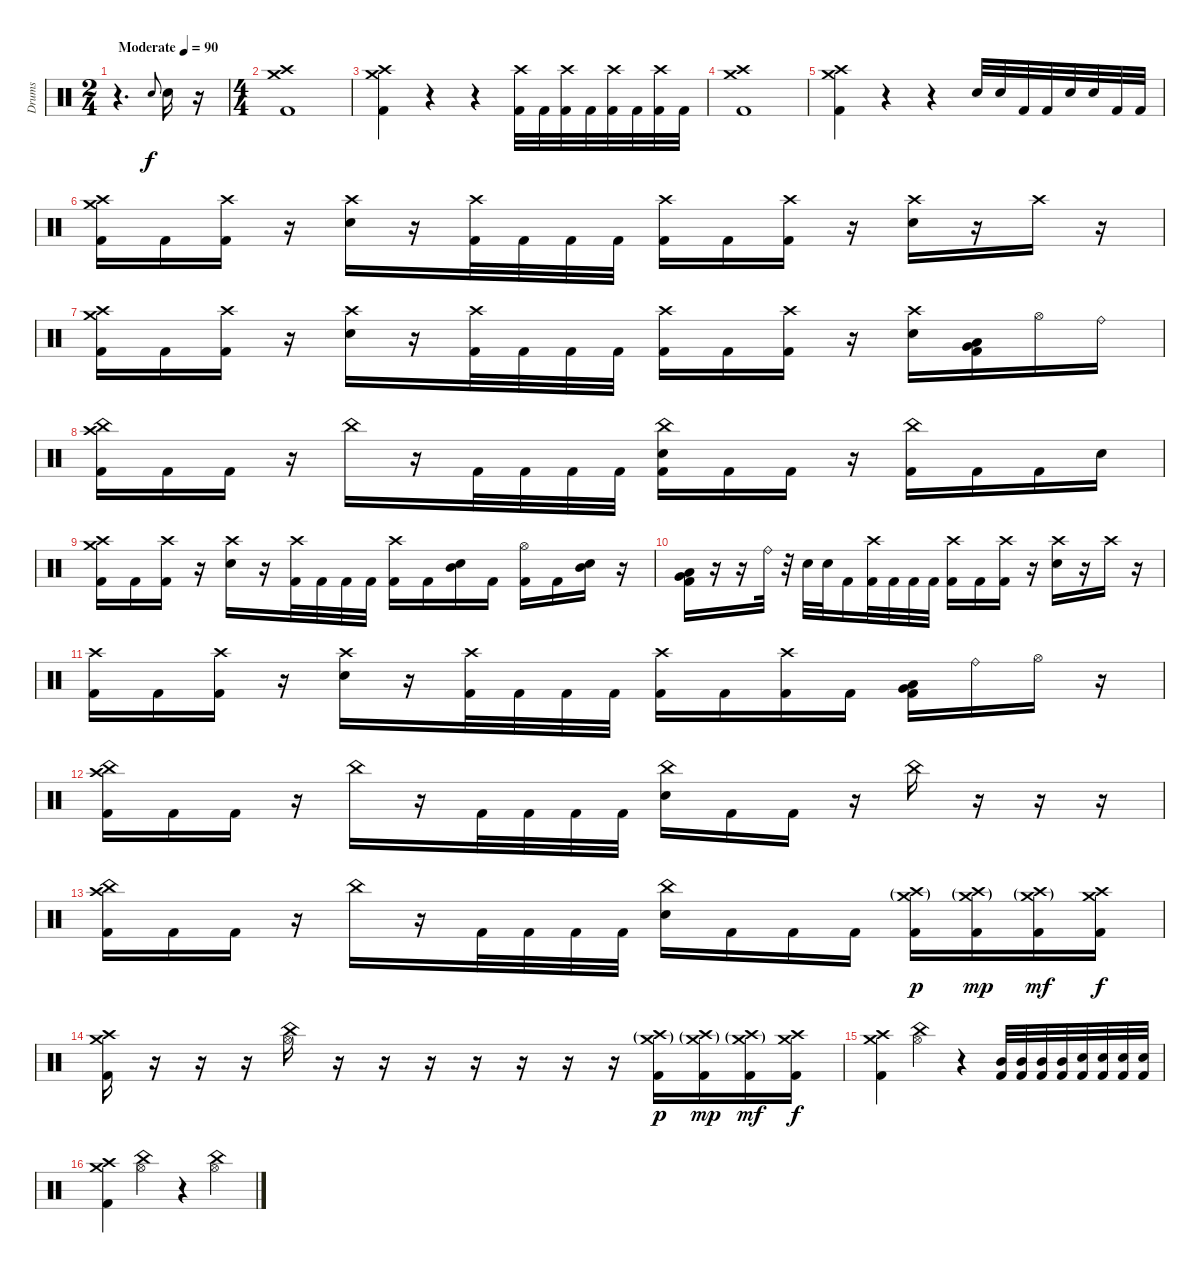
\track ("Drums" "Drums") {instrument percussion}
\staff {score}
\articulation defaults
\ts (2 4)
\tempo (90 "Moderate")
\clef neutral
\ks c
r.4{d dy f} "Electric Snare (hit)".8{gr onbeat} "Electric Snare (hit)".16 r.16 |
\ts (4 4)
("Crash high (hit)" "Crash medium (hit)" "Kick (hit) 2").1 |
("Crash high (hit)" "Crash medium (hit)" "Kick (hit) 2").4 r.4 r.4 ("Crash high (hit)" "Kick (hit) 2").32 "Kick (hit) 2".32 ("Crash high (hit)" "Kick (hit) 2").32 "Kick (hit) 2".32 ("Crash high (hit)" "Kick (hit) 2").32 "Kick (hit) 2".32 ("Crash high (hit)" "Kick (hit) 2").32 "Kick (hit) 2".32 |
("Crash high (hit)" "Crash medium (hit)" "Kick (hit) 2").1 |
("Crash high (hit)" "Crash medium (hit)" "Kick (hit) 2").4 r.4 r.4 "Electric Snare (hit)".32 "Electric Snare (hit)".32 "Kick (hit) 2".32 "Kick (hit) 2".32 "Electric Snare (hit)".32 "Electric Snare (hit)".32 "Kick (hit) 2".32 "Kick (hit) 2".32 |
("Crash high (hit)" "Crash medium (hit)" "Kick (hit) 2").16 "Kick (hit) 2".16 ("Crash high (hit)" "Kick (hit) 2").16 r.16 ("Crash high (hit)" "Electric Snare (hit)").16 r.16 ("Crash high (hit)" "Kick (hit) 2").32 "Kick (hit) 2".32 "Kick (hit) 2".32 "Kick (hit) 2".32 ("Crash high (hit)" "Kick (hit) 2").16 "Kick (hit) 2".16 ("Crash high (hit)" "Kick (hit) 2").16 r.16 ("Crash high (hit)" "Electric Snare (hit)").16 r.16 "Crash high (hit)".16 r.16 |
("Crash high (hit)" "Crash medium (hit)" "Kick (hit) 2").16 "Kick (hit) 2".16 ("Crash high (hit)" "Kick (hit) 2").16 r.16 ("Crash high (hit)" "Electric Snare (hit)").16 r.16 ("Crash high (hit)" "Kick (hit) 2").32 "Kick (hit) 2".32 "Kick (hit) 2".32 "Kick (hit) 2".32 ("Crash high (hit)" "Kick (hit) 2").16 "Kick (hit) 2".16 ("Crash high (hit)" "Kick (hit) 2").16 r.16 ("Crash high (hit)" "Electric Snare (hit)").16 ("Very Low Tom (hit)" "Low Floor Tom (hit)" "Kick (hit) 2").16 "Hi-Hat (open)".16 "Ride (bell)".16 |
("Crash high (hit)" "China (hit)" "Kick (hit) 2").16 "Kick (hit) 2".16 "Kick (hit) 2".16 r.16 "China (hit)".16 r.16 "Kick (hit) 2".32 "Kick (hit) 2".32 "Kick (hit) 2".32 "Kick (hit) 2".32 ("China (hit)" "Electric Snare (hit)" "Kick (hit) 2").16 "Kick (hit) 2".16 "Kick (hit) 2".16 r.16 ("China (hit)" "Kick (hit) 2").16 "Kick (hit) 2".16 "Kick (hit) 2".16 "Electric Snare (hit)".16 |
("Crash high (hit)" "Crash medium (hit)" "Kick (hit) 2").16 "Kick (hit) 2".16 ("Crash high (hit)" "Kick (hit) 2").16 r.16 ("Crash high (hit)" "Electric Snare (hit)").16 r.16 ("Crash high (hit)" "Kick (hit) 2").32 "Kick (hit) 2".32 "Kick (hit) 2".32 "Kick (hit) 2".32 ("Crash high (hit)" "Kick (hit) 2").16 "Kick (hit) 2".16 ("Mid Tom (hit)" "Electric Snare (hit)").16 "Kick (hit) 2".16 ("Hi-Hat (open)" "Kick (hit) 2").16 "Kick (hit) 2".16 ("Mid Tom (hit)" "Electric Snare (hit)").16{bd 480} r.16 |
("Low Tom (hit)" "Very Low Tom (hit)" "Kick (hit) 2").16 r.16 r.16 "Ride (bell)".32 r.32 "Electric Snare (hit)".32 "Electric Snare (hit)".32 "Kick (hit) 2".16 ("Crash high (hit)" "Kick (hit) 2").32 "Kick (hit) 2".32 "Kick (hit) 2".32 "Kick (hit) 2".32 ("Crash high (hit)" "Kick (hit) 2").16 "Kick (hit) 2".16 ("Crash high (hit)" "Kick (hit) 2").16 r.16 ("Crash high (hit)" "Electric Snare (hit)").16 r.16 "Crash high (hit)".16 r.16 |
("Crash high (hit)" "Kick (hit) 2").16 "Kick (hit) 2".16 ("Crash high (hit)" "Kick (hit) 2").16 r.16 ("Crash high (hit)" "Electric Snare (hit)").16 r.16 ("Crash high (hit)" "Kick (hit) 2").32 "Kick (hit) 2".32 "Kick (hit) 2".32 "Kick (hit) 2".32 ("Crash high (hit)" "Kick (hit) 2").16 "Kick (hit) 2".16 ("Crash high (hit)" "Kick (hit) 2").16 "Kick (hit) 2".16 ("Very Low Tom (hit)" "Low Floor Tom (hit)" "Kick (hit) 2").16 "Ride (bell)".16 "Hi-Hat (open)".16 r.16 |
("Crash high (hit)" "China (hit)" "Kick (hit) 2").16 "Kick (hit) 2".16 "Kick (hit) 2".16 r.16 "China (hit)".16 r.16 "Kick (hit) 2".32 "Kick (hit) 2".32 "Kick (hit) 2".32 "Kick (hit) 2".32 ("China (hit)" "Electric Snare (hit)").16 "Kick (hit) 2".16 "Kick (hit) 2".16 r.16 "China (hit)".16 r.16 r.16 r.16 |
("Crash high (hit)" "China (hit)" "Kick (hit) 2").16 "Kick (hit) 2".16 "Kick (hit) 2".16 r.16 "China (hit)".16 r.16 "Kick (hit) 2".32 "Kick (hit) 2".32 "Kick (hit) 2".32 "Kick (hit) 2".32 ("China (hit)" "Electric Snare (hit)").16 "Kick (hit) 2".16 "Kick (hit) 2".16 "Kick (hit) 2".16 ("Crash medium (hit)"{g} "Crash high (hit)"{g} "Kick (hit) 2").16{dy p} ("Crash medium (hit)"{g} "Crash high (hit)"{g} "Kick (hit) 2").16{dy mp} ("Crash medium (hit)"{g} "Crash high (hit)"{g} "Kick (hit) 2").16{dy mf} ("Crash medium (hit)" "Crash high (hit)" "Kick (hit) 2").16{dy f} |
("Crash high (hit)" "Crash medium (hit)" "Kick (hit) 2").16 r.16 r.16 r.16 ("China (hit)" "Hi-Hat (open)").16 r.16 r.16 r.16 r.16 r.16 r.16 r.16 ("Crash medium (hit)"{g} "Crash high (hit)"{g} "Kick (hit) 2").16{dy p} ("Crash medium (hit)"{g} "Crash high (hit)"{g} "Kick (hit) 2").16{dy mp} ("Crash medium (hit)"{g} "Crash high (hit)"{g} "Kick (hit) 2").16{dy mf} ("Crash medium (hit)" "Crash high (hit)" "Kick (hit) 2").16{dy f} |
("Crash high (hit)" "Crash medium (hit)" "Kick (hit) 2").4 ("China (hit)" "Hi-Hat (open)").4 r.4 ("Mid Tom (hit)" "Kick (hit) 2").32 ("Mid Tom (hit)" "Kick (hit) 2").32 ("Mid Tom (hit)" "Kick (hit) 2").32 ("Mid Tom (hit)" "Kick (hit) 2").32 ("Electric Snare (hit)" "Kick (hit) 2").32 ("Electric Snare (hit)" "Kick (hit) 2").32 ("Electric Snare (hit)" "Kick (hit) 2").32 ("Electric Snare (hit)" "Kick (hit) 2").32 |
("Crash high (hit)" "Crash medium (hit)" "Kick (hit) 2").4 ("China (hit)" "Hi-Hat (open)").4 r.4 ("China (hit)" "Hi-Hat (open)").4
